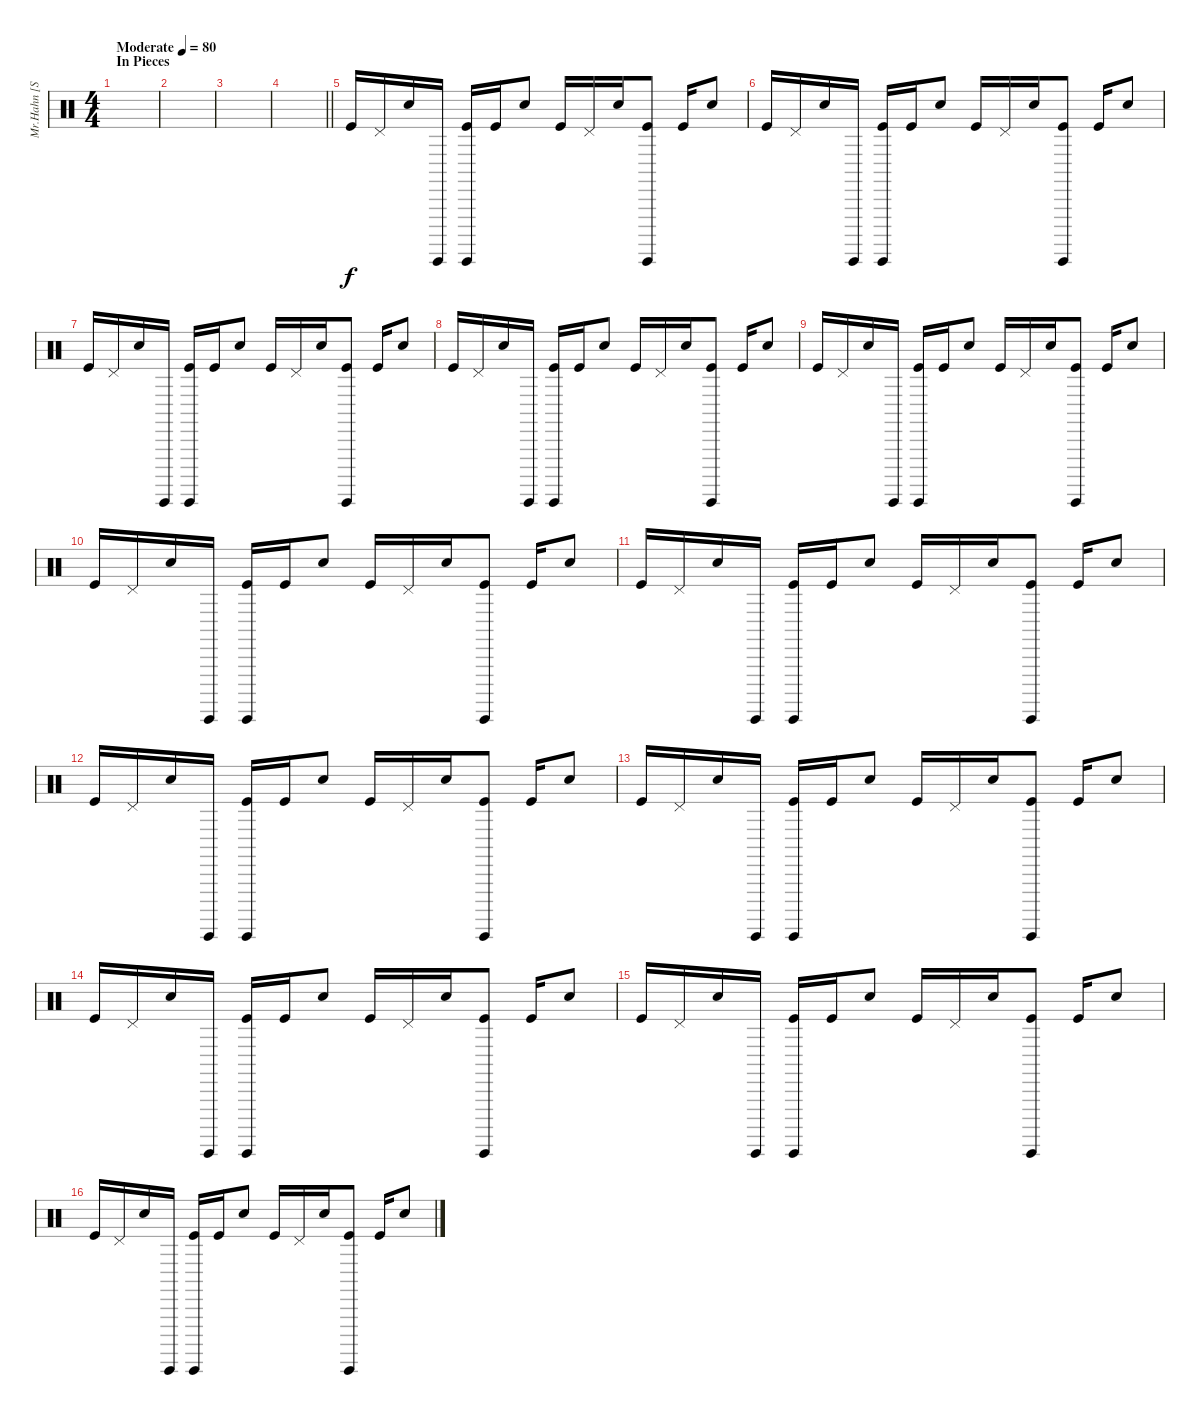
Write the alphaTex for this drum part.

\track ("Mr.Hahn [Sampler 4 Digital Drums]" "Mr.Hahn [S") {instrument percussion}
\staff {score}
\articulation defaults
\ts (4 4)
\section ("" "In Pieces")
\tempo (80 "Moderate")
\clef neutral
\ks c
|
|
|
\barLineRight lightlight
|
"Kick (hit)".16 "Pedal Hi-Hat (hit)".16 "Snare (hit) 2".16 "Guiro (hit)".16 ("Guiro (hit)" "Kick (hit)").16 "Kick (hit)".16 "Snare (hit) 2".8 "Kick (hit)".16 "Pedal Hi-Hat (hit)".16 "Snare (hit) 2".16 ("Guiro (hit)" "Kick (hit)").8 "Kick (hit)".16 "Snare (hit) 2".8 |
"Kick (hit)".16 "Pedal Hi-Hat (hit)".16 "Snare (hit) 2".16 "Guiro (hit)".16 ("Guiro (hit)" "Kick (hit)").16 "Kick (hit)".16 "Snare (hit) 2".8 "Kick (hit)".16 "Pedal Hi-Hat (hit)".16 "Snare (hit) 2".16 ("Guiro (hit)" "Kick (hit)").8 "Kick (hit)".16 "Snare (hit) 2".8 |
"Kick (hit)".16 "Pedal Hi-Hat (hit)".16 "Snare (hit) 2".16 "Guiro (hit)".16 ("Guiro (hit)" "Kick (hit)").16 "Kick (hit)".16 "Snare (hit) 2".8 "Kick (hit)".16 "Pedal Hi-Hat (hit)".16 "Snare (hit) 2".16 ("Guiro (hit)" "Kick (hit)").8 "Kick (hit)".16 "Snare (hit) 2".8 |
"Kick (hit)".16 "Pedal Hi-Hat (hit)".16 "Snare (hit) 2".16 "Guiro (hit)".16 ("Guiro (hit)" "Kick (hit)").16 "Kick (hit)".16 "Snare (hit) 2".8 "Kick (hit)".16 "Pedal Hi-Hat (hit)".16 "Snare (hit) 2".16 ("Guiro (hit)" "Kick (hit)").8 "Kick (hit)".16 "Snare (hit) 2".8 |
"Kick (hit)".16 "Pedal Hi-Hat (hit)".16 "Snare (hit) 2".16 "Guiro (hit)".16 ("Guiro (hit)" "Kick (hit)").16 "Kick (hit)".16 "Snare (hit) 2".8 "Kick (hit)".16 "Pedal Hi-Hat (hit)".16 "Snare (hit) 2".16 ("Guiro (hit)" "Kick (hit)").8 "Kick (hit)".16 "Snare (hit) 2".8 |
"Kick (hit)".16 "Pedal Hi-Hat (hit)".16 "Snare (hit) 2".16 "Guiro (hit)".16 ("Guiro (hit)" "Kick (hit)").16 "Kick (hit)".16 "Snare (hit) 2".8 "Kick (hit)".16 "Pedal Hi-Hat (hit)".16 "Snare (hit) 2".16 ("Guiro (hit)" "Kick (hit)").8 "Kick (hit)".16 "Snare (hit) 2".8 |
"Kick (hit)".16 "Pedal Hi-Hat (hit)".16 "Snare (hit) 2".16 "Guiro (hit)".16 ("Guiro (hit)" "Kick (hit)").16 "Kick (hit)".16 "Snare (hit) 2".8 "Kick (hit)".16 "Pedal Hi-Hat (hit)".16 "Snare (hit) 2".16 ("Guiro (hit)" "Kick (hit)").8 "Kick (hit)".16 "Snare (hit) 2".8 |
"Kick (hit)".16 "Pedal Hi-Hat (hit)".16 "Snare (hit) 2".16 "Guiro (hit)".16 ("Guiro (hit)" "Kick (hit)").16 "Kick (hit)".16 "Snare (hit) 2".8 "Kick (hit)".16 "Pedal Hi-Hat (hit)".16 "Snare (hit) 2".16 ("Guiro (hit)" "Kick (hit)").8 "Kick (hit)".16 "Snare (hit) 2".8 |
"Kick (hit)".16 "Pedal Hi-Hat (hit)".16 "Snare (hit) 2".16 "Guiro (hit)".16 ("Guiro (hit)" "Kick (hit)").16 "Kick (hit)".16 "Snare (hit) 2".8 "Kick (hit)".16 "Pedal Hi-Hat (hit)".16 "Snare (hit) 2".16 ("Guiro (hit)" "Kick (hit)").8 "Kick (hit)".16 "Snare (hit) 2".8 |
"Kick (hit)".16 "Pedal Hi-Hat (hit)".16 "Snare (hit) 2".16 "Guiro (hit)".16 ("Guiro (hit)" "Kick (hit)").16 "Kick (hit)".16 "Snare (hit) 2".8 "Kick (hit)".16 "Pedal Hi-Hat (hit)".16 "Snare (hit) 2".16 ("Guiro (hit)" "Kick (hit)").8 "Kick (hit)".16 "Snare (hit) 2".8 |
"Kick (hit)".16 "Pedal Hi-Hat (hit)".16 "Snare (hit) 2".16 "Guiro (hit)".16 ("Guiro (hit)" "Kick (hit)").16 "Kick (hit)".16 "Snare (hit) 2".8 "Kick (hit)".16 "Pedal Hi-Hat (hit)".16 "Snare (hit) 2".16 ("Guiro (hit)" "Kick (hit)").8 "Kick (hit)".16 "Snare (hit) 2".8 |
"Kick (hit)".16 "Pedal Hi-Hat (hit)".16 "Snare (hit) 2".16 "Guiro (hit)".16 ("Guiro (hit)" "Kick (hit)").16 "Kick (hit)".16 "Snare (hit) 2".8 "Kick (hit)".16 "Pedal Hi-Hat (hit)".16 "Snare (hit) 2".16 ("Guiro (hit)" "Kick (hit)").8 "Kick (hit)".16 "Snare (hit) 2".8
